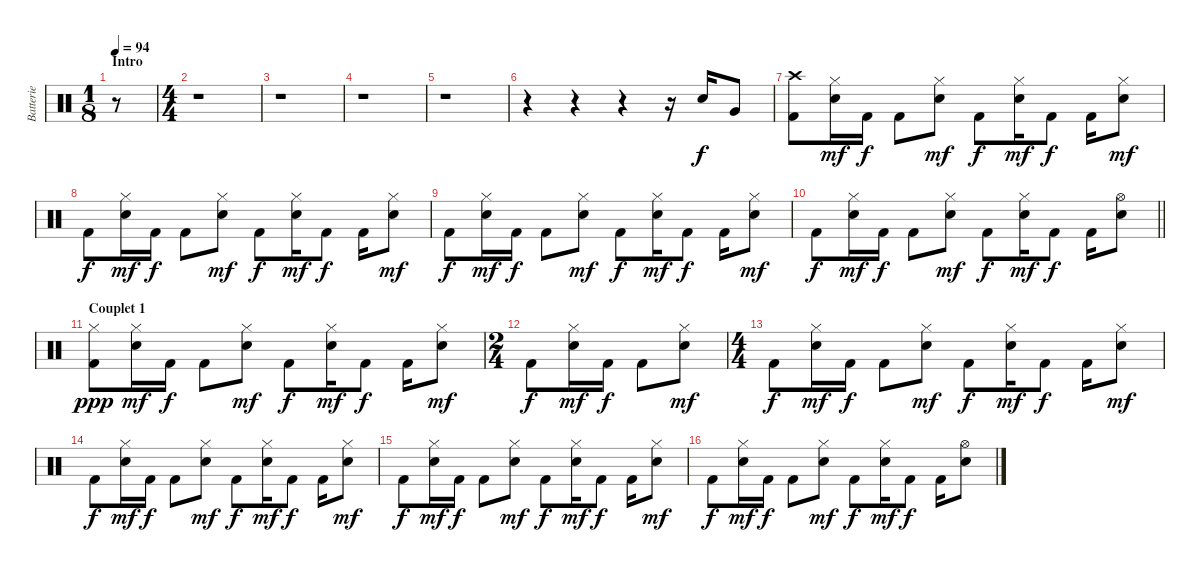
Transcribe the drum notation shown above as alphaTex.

\track ("Batterie" "Batterie") {instrument percussion}
\staff {score}
\articulation defaults
\ts (1 8)
\section ("" "Intro")
\tempo 94
\clef neutral
\ks c
r.8{dy f} |
\ts (4 4)
r.1 |
r.1 |
r.1 |
r.1 |
r.4 r.4 r.4 r.16 "Electric Snare (hit)".16 "Very Low Tom (hit)".8 |
("Crash high (hit)" "Kick (hit) 2").8 ("Hi-Hat (closed)" "Electric Snare (hit)").16{dy mf} "Kick (hit) 2".16{dy f} "Kick (hit) 2".8 ("Hi-Hat (closed)" "Electric Snare (hit)").8{dy mf} "Kick (hit) 2".8{dy f} ("Hi-Hat (closed)" "Electric Snare (hit)").16{dy mf} "Kick (hit) 2".8{dy f} "Kick (hit) 2".16 ("Hi-Hat (closed)" "Electric Snare (hit)").8{dy mf} |
"Kick (hit) 2".8{dy f} ("Hi-Hat (closed)" "Electric Snare (hit)").16{dy mf} "Kick (hit) 2".16{dy f} "Kick (hit) 2".8 ("Hi-Hat (closed)" "Electric Snare (hit)").8{dy mf} "Kick (hit) 2".8{dy f} ("Hi-Hat (closed)" "Electric Snare (hit)").16{dy mf} "Kick (hit) 2".8{dy f} "Kick (hit) 2".16 ("Hi-Hat (closed)" "Electric Snare (hit)").8{dy mf} |
"Kick (hit) 2".8{dy f} ("Hi-Hat (closed)" "Electric Snare (hit)").16{dy mf} "Kick (hit) 2".16{dy f} "Kick (hit) 2".8 ("Hi-Hat (closed)" "Electric Snare (hit)").8{dy mf} "Kick (hit) 2".8{dy f} ("Hi-Hat (closed)" "Electric Snare (hit)").16{dy mf} "Kick (hit) 2".8{dy f} "Kick (hit) 2".16 ("Hi-Hat (closed)" "Electric Snare (hit)").8{dy mf} |
\barLineRight lightlight "Kick (hit) 2".8{dy f}
("Hi-Hat (closed)" "Electric Snare (hit)").16{dy mf} "Kick (hit) 2".16{dy f} "Kick (hit) 2".8 ("Hi-Hat (closed)" "Electric Snare (hit)").8{dy mf} "Kick (hit) 2".8{dy f} ("Hi-Hat (closed)" "Electric Snare (hit)").16{dy mf} "Kick (hit) 2".8{dy f} "Kick (hit) 2".16 ("Hi-Hat (open)" "Electric Snare (hit)").8 |
\section ("" "Couplet 1")
("Hi-Hat (closed)" "Kick (hit) 2").8{dy ppp} ("Hi-Hat (closed)" "Electric Snare (hit)").16{dy mf} "Kick (hit) 2".16{dy f} "Kick (hit) 2".8 ("Hi-Hat (closed)" "Electric Snare (hit)").8{dy mf} "Kick (hit) 2".8{dy f} ("Hi-Hat (closed)" "Electric Snare (hit)").16{dy mf} "Kick (hit) 2".8{dy f} "Kick (hit) 2".16 ("Hi-Hat (closed)" "Electric Snare (hit)").8{dy mf} |
\ts (2 4)
"Kick (hit) 2".8{dy f} ("Hi-Hat (closed)" "Electric Snare (hit)").16{dy mf} "Kick (hit) 2".16{dy f} "Kick (hit) 2".8 ("Hi-Hat (closed)" "Electric Snare (hit)").8{dy mf} |
\ts (4 4)
"Kick (hit) 2".8{dy f} ("Hi-Hat (closed)" "Electric Snare (hit)").16{dy mf} "Kick (hit) 2".16{dy f} "Kick (hit) 2".8 ("Hi-Hat (closed)" "Electric Snare (hit)").8{dy mf} "Kick (hit) 2".8{dy f} ("Hi-Hat (closed)" "Electric Snare (hit)").16{dy mf} "Kick (hit) 2".8{dy f} "Kick (hit) 2".16 ("Hi-Hat (closed)" "Electric Snare (hit)").8{dy mf} |
"Kick (hit) 2".8{dy f} ("Hi-Hat (closed)" "Electric Snare (hit)").16{dy mf} "Kick (hit) 2".16{dy f} "Kick (hit) 2".8 ("Hi-Hat (closed)" "Electric Snare (hit)").8{dy mf} "Kick (hit) 2".8{dy f} ("Hi-Hat (closed)" "Electric Snare (hit)").16{dy mf} "Kick (hit) 2".8{dy f} "Kick (hit) 2".16 ("Hi-Hat (closed)" "Electric Snare (hit)").8{dy mf} |
"Kick (hit) 2".8{dy f} ("Hi-Hat (closed)" "Electric Snare (hit)").16{dy mf} "Kick (hit) 2".16{dy f} "Kick (hit) 2".8 ("Hi-Hat (closed)" "Electric Snare (hit)").8{dy mf} "Kick (hit) 2".8{dy f} ("Hi-Hat (closed)" "Electric Snare (hit)").16{dy mf} "Kick (hit) 2".8{dy f} "Kick (hit) 2".16 ("Hi-Hat (closed)" "Electric Snare (hit)").8{dy mf} |
"Kick (hit) 2".8{dy f} ("Hi-Hat (closed)" "Electric Snare (hit)").16{dy mf} "Kick (hit) 2".16{dy f} "Kick (hit) 2".8 ("Hi-Hat (closed)" "Electric Snare (hit)").8{dy mf} "Kick (hit) 2".8{dy f} ("Hi-Hat (closed)" "Electric Snare (hit)").16{dy mf} "Kick (hit) 2".8{dy f} "Kick (hit) 2".16 ("Hi-Hat (open)" "Electric Snare (hit)").8
